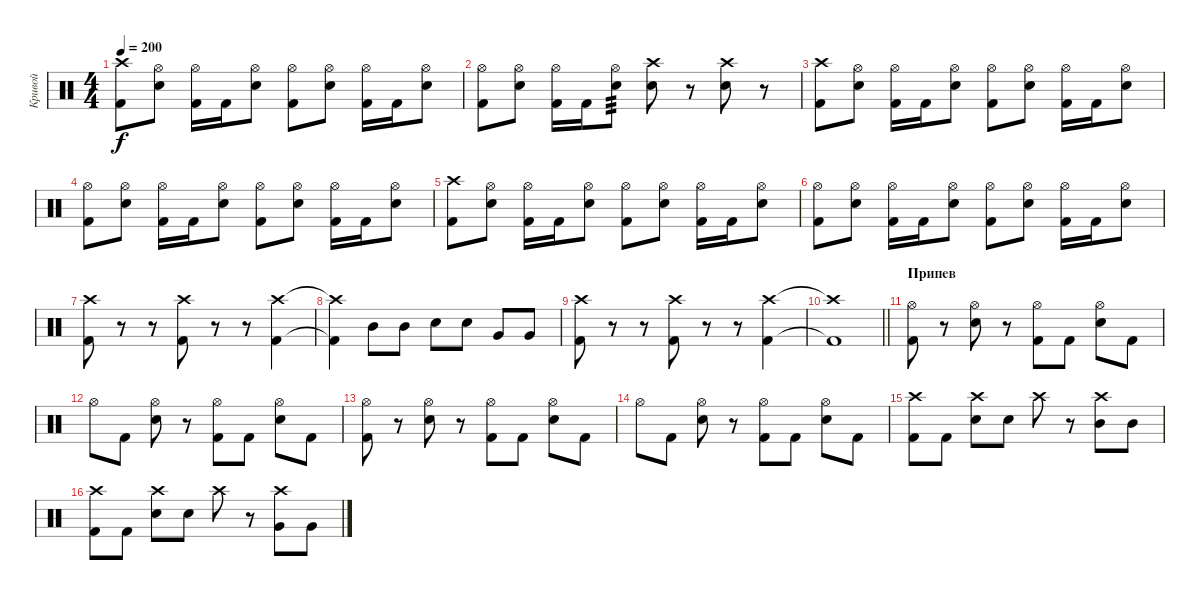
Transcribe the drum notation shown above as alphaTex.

\track ("Кривой" "Кривой") {instrument percussion}
\staff {score}
\articulation defaults
\ts (4 4)
\tempo 200
\clef neutral
\ks c
("Kick (hit) 2" "Crash high (hit)").8{dy f} ("Electric Snare (hit)" "Hi-Hat (open)").8 ("Kick (hit) 2" "Hi-Hat (open)").16 "Kick (hit) 2".16 ("Electric Snare (hit)" "Hi-Hat (open)").8 ("Kick (hit) 2" "Hi-Hat (open)").8 ("Electric Snare (hit)" "Hi-Hat (open)").8 ("Kick (hit) 2" "Hi-Hat (open)").16 "Kick (hit) 2".16 ("Electric Snare (hit)" "Hi-Hat (open)").8 |
("Kick (hit) 2" "Hi-Hat (open)").8 ("Electric Snare (hit)" "Hi-Hat (open)").8 ("Kick (hit) 2" "Hi-Hat (open)").16 "Kick (hit) 2".16 ("Electric Snare (hit)" "Hi-Hat (open)").8{tp 3} ("Electric Snare (hit)" "Crash high (hit)").8 r.8 ("Electric Snare (hit)" "Crash high (hit)").8 r.8 |
("Kick (hit) 2" "Crash high (hit)").8 ("Electric Snare (hit)" "Hi-Hat (open)").8 ("Kick (hit) 2" "Hi-Hat (open)").16 "Kick (hit) 2".16 ("Electric Snare (hit)" "Hi-Hat (open)").8 ("Kick (hit) 2" "Hi-Hat (open)").8 ("Electric Snare (hit)" "Hi-Hat (open)").8 ("Kick (hit) 2" "Hi-Hat (open)").16 "Kick (hit) 2".16 ("Electric Snare (hit)" "Hi-Hat (open)").8 |
("Kick (hit) 2" "Hi-Hat (open)").8 ("Electric Snare (hit)" "Hi-Hat (open)").8 ("Kick (hit) 2" "Hi-Hat (open)").16 "Kick (hit) 2".16 ("Electric Snare (hit)" "Hi-Hat (open)").8 ("Kick (hit) 2" "Hi-Hat (open)").8 ("Electric Snare (hit)" "Hi-Hat (open)").8 ("Kick (hit) 2" "Hi-Hat (open)").16 "Kick (hit) 2".16 ("Electric Snare (hit)" "Hi-Hat (open)").8 |
("Kick (hit) 2" "Crash high (hit)").8 ("Electric Snare (hit)" "Hi-Hat (open)").8 ("Kick (hit) 2" "Hi-Hat (open)").16 "Kick (hit) 2".16 ("Electric Snare (hit)" "Hi-Hat (open)").8 ("Kick (hit) 2" "Hi-Hat (open)").8 ("Electric Snare (hit)" "Hi-Hat (open)").8 ("Kick (hit) 2" "Hi-Hat (open)").16 "Kick (hit) 2".16 ("Electric Snare (hit)" "Hi-Hat (open)").8 |
("Kick (hit) 2" "Hi-Hat (open)").8 ("Electric Snare (hit)" "Hi-Hat (open)").8 ("Kick (hit) 2" "Hi-Hat (open)").16 "Kick (hit) 2".16 ("Electric Snare (hit)" "Hi-Hat (open)").8 ("Kick (hit) 2" "Hi-Hat (open)").8 ("Electric Snare (hit)" "Hi-Hat (open)").8 ("Kick (hit) 2" "Hi-Hat (open)").16 "Kick (hit) 2".16 ("Electric Snare (hit)" "Hi-Hat (open)").8 |
("Kick (hit) 2" "Crash high (hit)").8 r.8 r.8 ("Kick (hit) 2" "Crash high (hit)").8 r.8 r.8 ("Kick (hit) 2" "Crash high (hit)").4 |
("Kick (hit) 2"{t} "Crash high (hit)"{t}).4 "Mid Tom (hit)".8 "Mid Tom (hit)".8 "Electric Snare (hit)".8 "Electric Snare (hit)".8 "Very Low Tom (hit)".8 "Very Low Tom (hit)".8 |
("Kick (hit) 2" "Crash high (hit)").8 r.8 r.8 ("Kick (hit) 2" "Crash high (hit)").8 r.8 r.8 ("Kick (hit) 2" "Crash high (hit)").4 |
\barLineRight lightlight
("Kick (hit) 2"{t} "Crash high (hit)"{t}).1 |
\section ("" "Припев")
("Kick (hit) 2" "Hi-Hat (open)").8 r.8 ("Electric Snare (hit)" "Hi-Hat (open)").8 r.8 ("Kick (hit) 2" "Hi-Hat (open)").8 "Kick (hit) 2".8 ("Electric Snare (hit)" "Hi-Hat (open)").8 "Kick (hit) 2".8 |
"Hi-Hat (open)".8 "Kick (hit) 2".8 ("Electric Snare (hit)" "Hi-Hat (open)").8 r.8 ("Kick (hit) 2" "Hi-Hat (open)").8 "Kick (hit) 2".8 ("Electric Snare (hit)" "Hi-Hat (open)").8 "Kick (hit) 2".8 |
("Kick (hit) 2" "Hi-Hat (open)").8 r.8 ("Electric Snare (hit)" "Hi-Hat (open)").8 r.8 ("Kick (hit) 2" "Hi-Hat (open)").8 "Kick (hit) 2".8 ("Electric Snare (hit)" "Hi-Hat (open)").8 "Kick (hit) 2".8 |
"Hi-Hat (open)".8 "Kick (hit) 2".8 ("Electric Snare (hit)" "Hi-Hat (open)").8 r.8 ("Kick (hit) 2" "Hi-Hat (open)").8 "Kick (hit) 2".8 ("Electric Snare (hit)" "Hi-Hat (open)").8 "Kick (hit) 2".8 |
("Kick (hit) 2" "Crash high (hit)").8 "Kick (hit) 2".8 ("Electric Snare (hit)" "Crash high (hit)").8 "Electric Snare (hit)".8 "Crash high (hit)".8 r.8 ("Mid Tom (hit)" "Crash high (hit)").8 "Mid Tom (hit)".8 |
("Kick (hit) 2" "Crash high (hit)").8 "Kick (hit) 2".8 ("Electric Snare (hit)" "Crash high (hit)").8 "Electric Snare (hit)".8 "Crash high (hit)".8 r.8 ("Very Low Tom (hit)" "Crash high (hit)").8 "Very Low Tom (hit)".8
